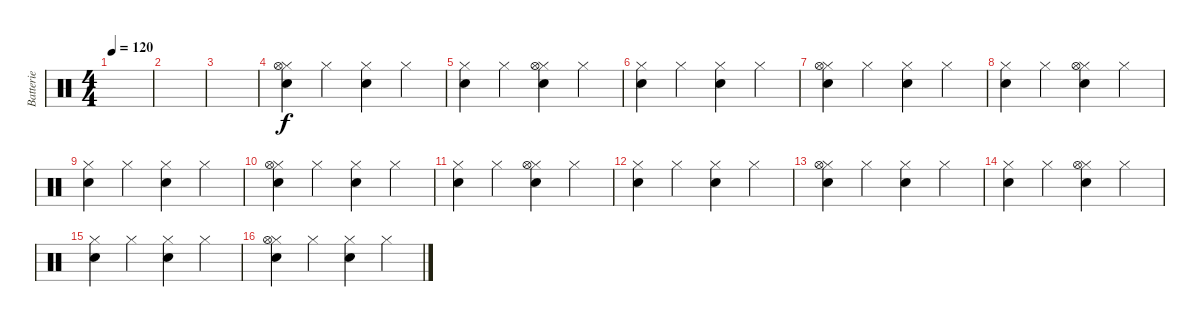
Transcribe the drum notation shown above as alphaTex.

\track ("Batterie" "Batterie") {instrument percussion}
\staff {score}
\articulation defaults
\ts (4 4)
\tempo 120
\clef neutral
\ks c
|
|
|
("Hi-Hat (closed)" "Electric Snare (hit)" "Hi-Hat (open)").4 "Hi-Hat (closed)".4 ("Hi-Hat (closed)" "Electric Snare (hit)").4 "Hi-Hat (closed)".4 |
("Hi-Hat (closed)" "Electric Snare (hit)").4 "Hi-Hat (closed)".4 ("Hi-Hat (closed)" "Electric Snare (hit)" "Hi-Hat (open)").4 "Hi-Hat (closed)".4 |
("Hi-Hat (closed)" "Electric Snare (hit)").4 "Hi-Hat (closed)".4 ("Hi-Hat (closed)" "Electric Snare (hit)").4 "Hi-Hat (closed)".4 |
("Hi-Hat (closed)" "Electric Snare (hit)" "Hi-Hat (open)").4 "Hi-Hat (closed)".4 ("Hi-Hat (closed)" "Electric Snare (hit)").4 "Hi-Hat (closed)".4 |
("Hi-Hat (closed)" "Electric Snare (hit)").4 "Hi-Hat (closed)".4 ("Hi-Hat (closed)" "Electric Snare (hit)" "Hi-Hat (open)").4 "Hi-Hat (closed)".4 |
("Hi-Hat (closed)" "Electric Snare (hit)").4 "Hi-Hat (closed)".4 ("Hi-Hat (closed)" "Electric Snare (hit)").4 "Hi-Hat (closed)".4 |
("Hi-Hat (closed)" "Electric Snare (hit)" "Hi-Hat (open)").4 "Hi-Hat (closed)".4 ("Hi-Hat (closed)" "Electric Snare (hit)").4 "Hi-Hat (closed)".4 |
("Hi-Hat (closed)" "Electric Snare (hit)").4 "Hi-Hat (closed)".4 ("Hi-Hat (closed)" "Electric Snare (hit)" "Hi-Hat (open)").4 "Hi-Hat (closed)".4 |
("Hi-Hat (closed)" "Electric Snare (hit)").4 "Hi-Hat (closed)".4 ("Hi-Hat (closed)" "Electric Snare (hit)").4 "Hi-Hat (closed)".4 |
("Hi-Hat (closed)" "Electric Snare (hit)" "Hi-Hat (open)").4 "Hi-Hat (closed)".4 ("Hi-Hat (closed)" "Electric Snare (hit)").4 "Hi-Hat (closed)".4 |
("Hi-Hat (closed)" "Electric Snare (hit)").4 "Hi-Hat (closed)".4 ("Hi-Hat (closed)" "Electric Snare (hit)" "Hi-Hat (open)").4 "Hi-Hat (closed)".4 |
("Hi-Hat (closed)" "Electric Snare (hit)").4 "Hi-Hat (closed)".4 ("Hi-Hat (closed)" "Electric Snare (hit)").4 "Hi-Hat (closed)".4 |
("Hi-Hat (closed)" "Electric Snare (hit)" "Hi-Hat (open)").4 "Hi-Hat (closed)".4 ("Hi-Hat (closed)" "Electric Snare (hit)").4 "Hi-Hat (closed)".4
